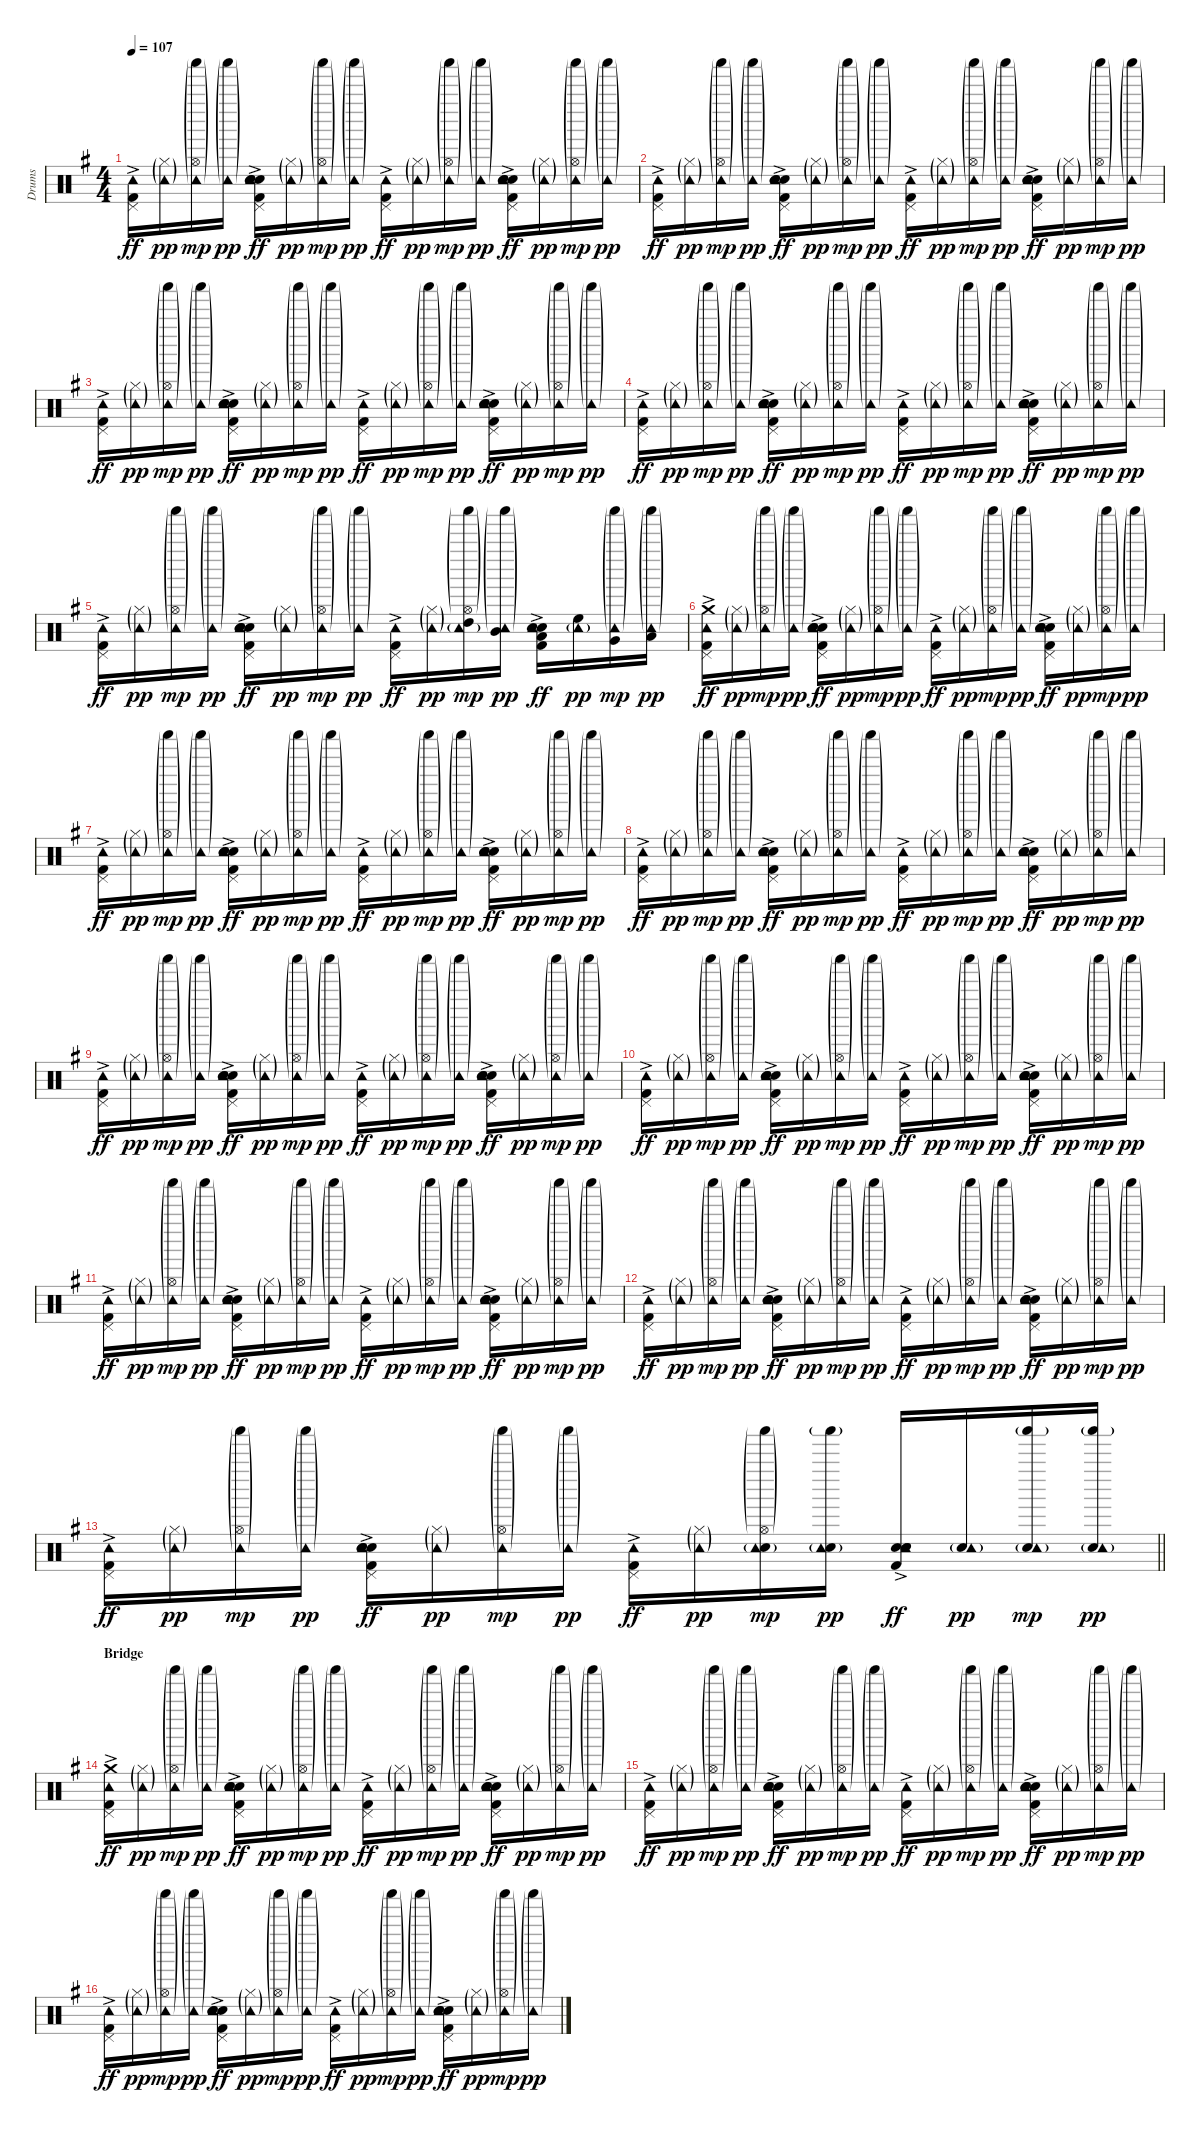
\track ("Drums" "Drums") {instrument percussion}
\staff {score}
\articulation defaults
\ts (4 4)
\tempo 107
\clef neutral
\ks g
("Kick (hit) 2"{ac} "Pedal Hi-Hat (hit)" "Tambourine (hit)").16{dy ff} ("Hi-Hat (closed)"{g} "Tambourine (hit)"{g}).16{dy pp} ("Shaker (hit)"{g} "Hi-Hat (open)"{g} "Tambourine (hit)"{g}).16{dy mp} ("Shaker (hit)"{g} "Tambourine (hit)"{g}).16{dy pp} ("Kick (hit) 2"{ac} "Electric Snare (hit)"{ac} "Snare (hit) 2" "Hand Clap (hit)" "Pedal Hi-Hat (hit)" "Tambourine (hit)").16{dy ff} ("Hi-Hat (closed)"{g} "Tambourine (hit)"{g}).16{dy pp} ("Shaker (hit)"{g} "Hi-Hat (open)"{g} "Tambourine (hit)"{g}).16{dy mp} ("Shaker (hit)"{g} "Tambourine (hit)"{g}).16{dy pp} ("Kick (hit) 2"{ac} "Pedal Hi-Hat (hit)" "Tambourine (hit)").16{dy ff} ("Hi-Hat (closed)"{g} "Tambourine (hit)"{g}).16{dy pp} ("Shaker (hit)"{g} "Hi-Hat (open)"{g} "Tambourine (hit)"{g}).16{dy mp} ("Shaker (hit)"{g} "Tambourine (hit)"{g}).16{dy pp} ("Kick (hit) 2"{ac} "Electric Snare (hit)"{ac} "Snare (hit) 2" "Hand Clap (hit)" "Pedal Hi-Hat (hit)" "Tambourine (hit)").16{dy ff} ("Hi-Hat (closed)"{g} "Tambourine (hit)"{g}).16{dy pp} ("Shaker (hit)"{g} "Hi-Hat (open)"{g} "Tambourine (hit)"{g}).16{dy mp} ("Shaker (hit)"{g} "Tambourine (hit)"{g}).16{dy pp} |
("Kick (hit) 2"{ac} "Pedal Hi-Hat (hit)" "Tambourine (hit)").16{dy ff} ("Hi-Hat (closed)"{g} "Tambourine (hit)"{g}).16{dy pp} ("Shaker (hit)"{g} "Hi-Hat (open)"{g} "Tambourine (hit)"{g}).16{dy mp} ("Shaker (hit)"{g} "Tambourine (hit)"{g}).16{dy pp} ("Kick (hit) 2"{ac} "Electric Snare (hit)"{ac} "Snare (hit) 2" "Hand Clap (hit)" "Pedal Hi-Hat (hit)" "Tambourine (hit)").16{dy ff} ("Hi-Hat (closed)"{g} "Tambourine (hit)"{g}).16{dy pp} ("Shaker (hit)"{g} "Hi-Hat (open)"{g} "Tambourine (hit)"{g}).16{dy mp} ("Shaker (hit)"{g} "Tambourine (hit)"{g}).16{dy pp} ("Kick (hit) 2"{ac} "Pedal Hi-Hat (hit)" "Tambourine (hit)").16{dy ff} ("Hi-Hat (closed)"{g} "Tambourine (hit)"{g}).16{dy pp} ("Shaker (hit)"{g} "Hi-Hat (open)"{g} "Tambourine (hit)"{g}).16{dy mp} ("Shaker (hit)"{g} "Tambourine (hit)"{g}).16{dy pp} ("Kick (hit) 2"{ac} "Electric Snare (hit)"{ac} "Snare (hit) 2" "Hand Clap (hit)" "Pedal Hi-Hat (hit)" "Tambourine (hit)").16{dy ff} ("Hi-Hat (closed)"{g} "Tambourine (hit)"{g}).16{dy pp} ("Shaker (hit)"{g} "Hi-Hat (open)"{g} "Tambourine (hit)"{g}).16{dy mp} ("Shaker (hit)"{g} "Tambourine (hit)"{g}).16{dy pp} |
("Kick (hit) 2"{ac} "Pedal Hi-Hat (hit)" "Tambourine (hit)").16{dy ff} ("Hi-Hat (closed)"{g} "Tambourine (hit)"{g}).16{dy pp} ("Shaker (hit)"{g} "Hi-Hat (open)"{g} "Tambourine (hit)"{g}).16{dy mp} ("Shaker (hit)"{g} "Tambourine (hit)"{g}).16{dy pp} ("Kick (hit) 2"{ac} "Electric Snare (hit)"{ac} "Snare (hit) 2" "Hand Clap (hit)" "Pedal Hi-Hat (hit)" "Tambourine (hit)").16{dy ff} ("Hi-Hat (closed)"{g} "Tambourine (hit)"{g}).16{dy pp} ("Shaker (hit)"{g} "Hi-Hat (open)"{g} "Tambourine (hit)"{g}).16{dy mp} ("Shaker (hit)"{g} "Tambourine (hit)"{g}).16{dy pp} ("Kick (hit) 2"{ac} "Pedal Hi-Hat (hit)" "Tambourine (hit)").16{dy ff} ("Hi-Hat (closed)"{g} "Tambourine (hit)"{g}).16{dy pp} ("Shaker (hit)"{g} "Hi-Hat (open)"{g} "Tambourine (hit)"{g}).16{dy mp} ("Shaker (hit)"{g} "Tambourine (hit)"{g}).16{dy pp} ("Kick (hit) 2"{ac} "Electric Snare (hit)"{ac} "Snare (hit) 2" "Hand Clap (hit)" "Pedal Hi-Hat (hit)" "Tambourine (hit)").16{dy ff} ("Hi-Hat (closed)"{g} "Tambourine (hit)"{g}).16{dy pp} ("Shaker (hit)"{g} "Hi-Hat (open)"{g} "Tambourine (hit)"{g}).16{dy mp} ("Shaker (hit)"{g} "Tambourine (hit)"{g}).16{dy pp} |
("Kick (hit) 2"{ac} "Pedal Hi-Hat (hit)" "Tambourine (hit)").16{dy ff} ("Hi-Hat (closed)"{g} "Tambourine (hit)"{g}).16{dy pp} ("Shaker (hit)"{g} "Hi-Hat (open)"{g} "Tambourine (hit)"{g}).16{dy mp} ("Shaker (hit)"{g} "Tambourine (hit)"{g}).16{dy pp} ("Kick (hit) 2"{ac} "Electric Snare (hit)"{ac} "Snare (hit) 2" "Hand Clap (hit)" "Pedal Hi-Hat (hit)" "Tambourine (hit)").16{dy ff} ("Hi-Hat (closed)"{g} "Tambourine (hit)"{g}).16{dy pp} ("Shaker (hit)"{g} "Hi-Hat (open)"{g} "Tambourine (hit)"{g}).16{dy mp} ("Shaker (hit)"{g} "Tambourine (hit)"{g}).16{dy pp} ("Kick (hit) 2"{ac} "Pedal Hi-Hat (hit)" "Tambourine (hit)").16{dy ff} ("Hi-Hat (closed)"{g} "Tambourine (hit)"{g}).16{dy pp} ("Shaker (hit)"{g} "Hi-Hat (open)"{g} "Tambourine (hit)"{g}).16{dy mp} ("Shaker (hit)"{g} "Tambourine (hit)"{g}).16{dy pp} ("Kick (hit) 2"{ac} "Electric Snare (hit)"{ac} "Snare (hit) 2" "Hand Clap (hit)" "Pedal Hi-Hat (hit)" "Tambourine (hit)").16{dy ff} ("Hi-Hat (closed)"{g} "Tambourine (hit)"{g}).16{dy pp} ("Shaker (hit)"{g} "Hi-Hat (open)"{g} "Tambourine (hit)"{g}).16{dy mp} ("Shaker (hit)"{g} "Tambourine (hit)"{g}).16{dy pp} |
("Kick (hit) 2"{ac} "Pedal Hi-Hat (hit)" "Tambourine (hit)").16{dy ff} ("Hi-Hat (closed)"{g} "Tambourine (hit)"{g}).16{dy pp} ("Shaker (hit)"{g} "Hi-Hat (open)"{g} "Tambourine (hit)"{g}).16{dy mp} ("Shaker (hit)"{g} "Tambourine (hit)"{g}).16{dy pp} ("Kick (hit) 2"{ac} "Electric Snare (hit)"{ac} "Snare (hit) 2" "Hand Clap (hit)" "Pedal Hi-Hat (hit)" "Tambourine (hit)").16{dy ff} ("Hi-Hat (closed)"{g} "Tambourine (hit)"{g}).16{dy pp} ("Shaker (hit)"{g} "Hi-Hat (open)"{g} "Tambourine (hit)"{g}).16{dy mp} ("Shaker (hit)"{g} "Tambourine (hit)"{g}).16{dy pp} ("Kick (hit) 2"{ac} "Pedal Hi-Hat (hit)" "Tambourine (hit)").16{dy ff} ("Hi-Hat (closed)"{g} "Tambourine (hit)"{g}).16{dy pp} ("High Tom (hit)" "Shaker (hit)"{g} "Hi-Hat (open)"{g} "Tambourine (hit)"{g}).16{dy mp} ("Mid Tom (hit)" "Shaker (hit)"{g} "Tambourine (hit)"{g}).16{dy pp} ("Kick (hit) 2"{ac} "Electric Snare (hit)"{ac} "Low Tom (hit)" "Hand Clap (hit)" "Tambourine (hit)").16{dy ff} ("High Floor Tom (hit)" "Tambourine (hit)"{g}).16{dy pp} ("Very Low Tom (hit)" "Shaker (hit)"{g} "Tambourine (hit)"{g}).16{dy mp} ("Low Floor Tom (hit)" "Shaker (hit)"{g} "Tambourine (hit)"{g}).16{dy pp} |
("Kick (hit) 2"{ac} "Crash medium (hit)" "Pedal Hi-Hat (hit)" "Tambourine (hit)").16{dy ff} ("Hi-Hat (closed)"{g} "Tambourine (hit)"{g}).16{dy pp} ("Shaker (hit)"{g} "Hi-Hat (open)"{g} "Tambourine (hit)"{g}).16{dy mp} ("Shaker (hit)"{g} "Tambourine (hit)"{g}).16{dy pp} ("Kick (hit) 2"{ac} "Electric Snare (hit)"{ac} "Snare (hit) 2" "Hand Clap (hit)" "Pedal Hi-Hat (hit)" "Tambourine (hit)").16{dy ff} ("Hi-Hat (closed)"{g} "Tambourine (hit)"{g}).16{dy pp} ("Shaker (hit)"{g} "Hi-Hat (open)"{g} "Tambourine (hit)"{g}).16{dy mp} ("Shaker (hit)"{g} "Tambourine (hit)"{g}).16{dy pp} ("Kick (hit) 2"{ac} "Pedal Hi-Hat (hit)" "Tambourine (hit)").16{dy ff} ("Hi-Hat (closed)"{g} "Tambourine (hit)"{g}).16{dy pp} ("Shaker (hit)"{g} "Hi-Hat (open)"{g} "Tambourine (hit)"{g}).16{dy mp} ("Shaker (hit)"{g} "Tambourine (hit)"{g}).16{dy pp} ("Kick (hit) 2"{ac} "Electric Snare (hit)"{ac} "Snare (hit) 2" "Hand Clap (hit)" "Pedal Hi-Hat (hit)" "Tambourine (hit)").16{dy ff} ("Hi-Hat (closed)"{g} "Tambourine (hit)"{g}).16{dy pp} ("Shaker (hit)"{g} "Hi-Hat (open)"{g} "Tambourine (hit)"{g}).16{dy mp} ("Shaker (hit)"{g} "Tambourine (hit)"{g}).16{dy pp} |
("Kick (hit) 2"{ac} "Pedal Hi-Hat (hit)" "Tambourine (hit)").16{dy ff} ("Hi-Hat (closed)"{g} "Tambourine (hit)"{g}).16{dy pp} ("Shaker (hit)"{g} "Hi-Hat (open)"{g} "Tambourine (hit)"{g}).16{dy mp} ("Shaker (hit)"{g} "Tambourine (hit)"{g}).16{dy pp} ("Kick (hit) 2"{ac} "Electric Snare (hit)"{ac} "Snare (hit) 2" "Hand Clap (hit)" "Pedal Hi-Hat (hit)" "Tambourine (hit)").16{dy ff} ("Hi-Hat (closed)"{g} "Tambourine (hit)"{g}).16{dy pp} ("Shaker (hit)"{g} "Hi-Hat (open)"{g} "Tambourine (hit)"{g}).16{dy mp} ("Shaker (hit)"{g} "Tambourine (hit)"{g}).16{dy pp} ("Kick (hit) 2"{ac} "Pedal Hi-Hat (hit)" "Tambourine (hit)").16{dy ff} ("Hi-Hat (closed)"{g} "Tambourine (hit)"{g}).16{dy pp} ("Shaker (hit)"{g} "Hi-Hat (open)"{g} "Tambourine (hit)"{g}).16{dy mp} ("Shaker (hit)"{g} "Tambourine (hit)"{g}).16{dy pp} ("Kick (hit) 2"{ac} "Electric Snare (hit)"{ac} "Snare (hit) 2" "Hand Clap (hit)" "Pedal Hi-Hat (hit)" "Tambourine (hit)").16{dy ff} ("Hi-Hat (closed)"{g} "Tambourine (hit)"{g}).16{dy pp} ("Shaker (hit)"{g} "Hi-Hat (open)"{g} "Tambourine (hit)"{g}).16{dy mp} ("Shaker (hit)"{g} "Tambourine (hit)"{g}).16{dy pp} |
("Kick (hit) 2"{ac} "Pedal Hi-Hat (hit)" "Tambourine (hit)").16{dy ff} ("Hi-Hat (closed)"{g} "Tambourine (hit)"{g}).16{dy pp} ("Shaker (hit)"{g} "Hi-Hat (open)"{g} "Tambourine (hit)"{g}).16{dy mp} ("Shaker (hit)"{g} "Tambourine (hit)"{g}).16{dy pp} ("Kick (hit) 2"{ac} "Electric Snare (hit)"{ac} "Snare (hit) 2" "Hand Clap (hit)" "Pedal Hi-Hat (hit)" "Tambourine (hit)").16{dy ff} ("Hi-Hat (closed)"{g} "Tambourine (hit)"{g}).16{dy pp} ("Shaker (hit)"{g} "Hi-Hat (open)"{g} "Tambourine (hit)"{g}).16{dy mp} ("Shaker (hit)"{g} "Tambourine (hit)"{g}).16{dy pp} ("Kick (hit) 2"{ac} "Pedal Hi-Hat (hit)" "Tambourine (hit)").16{dy ff} ("Hi-Hat (closed)"{g} "Tambourine (hit)"{g}).16{dy pp} ("Shaker (hit)"{g} "Hi-Hat (open)"{g} "Tambourine (hit)"{g}).16{dy mp} ("Shaker (hit)"{g} "Tambourine (hit)"{g}).16{dy pp} ("Kick (hit) 2"{ac} "Electric Snare (hit)"{ac} "Snare (hit) 2" "Hand Clap (hit)" "Pedal Hi-Hat (hit)" "Tambourine (hit)").16{dy ff} ("Hi-Hat (closed)"{g} "Tambourine (hit)"{g}).16{dy pp} ("Shaker (hit)"{g} "Hi-Hat (open)"{g} "Tambourine (hit)"{g}).16{dy mp} ("Shaker (hit)"{g} "Tambourine (hit)"{g}).16{dy pp} |
("Kick (hit) 2"{ac} "Pedal Hi-Hat (hit)" "Tambourine (hit)").16{dy ff} ("Hi-Hat (closed)"{g} "Tambourine (hit)"{g}).16{dy pp} ("Shaker (hit)"{g} "Hi-Hat (open)"{g} "Tambourine (hit)"{g}).16{dy mp} ("Shaker (hit)"{g} "Tambourine (hit)"{g}).16{dy pp} ("Kick (hit) 2"{ac} "Electric Snare (hit)"{ac} "Snare (hit) 2" "Hand Clap (hit)" "Pedal Hi-Hat (hit)" "Tambourine (hit)").16{dy ff} ("Hi-Hat (closed)"{g} "Tambourine (hit)"{g}).16{dy pp} ("Shaker (hit)"{g} "Hi-Hat (open)"{g} "Tambourine (hit)"{g}).16{dy mp} ("Shaker (hit)"{g} "Tambourine (hit)"{g}).16{dy pp} ("Kick (hit) 2"{ac} "Pedal Hi-Hat (hit)" "Tambourine (hit)").16{dy ff} ("Hi-Hat (closed)"{g} "Tambourine (hit)"{g}).16{dy pp} ("Shaker (hit)"{g} "Hi-Hat (open)"{g} "Tambourine (hit)"{g}).16{dy mp} ("Shaker (hit)"{g} "Tambourine (hit)"{g}).16{dy pp} ("Kick (hit) 2"{ac} "Electric Snare (hit)"{ac} "Snare (hit) 2" "Hand Clap (hit)" "Pedal Hi-Hat (hit)" "Tambourine (hit)").16{dy ff} ("Hi-Hat (closed)"{g} "Tambourine (hit)"{g}).16{dy pp} ("Shaker (hit)"{g} "Hi-Hat (open)"{g} "Tambourine (hit)"{g}).16{dy mp} ("Shaker (hit)"{g} "Tambourine (hit)"{g}).16{dy pp} |
("Kick (hit) 2"{ac} "Pedal Hi-Hat (hit)" "Tambourine (hit)").16{dy ff} ("Hi-Hat (closed)"{g} "Tambourine (hit)"{g}).16{dy pp} ("Shaker (hit)"{g} "Hi-Hat (open)"{g} "Tambourine (hit)"{g}).16{dy mp} ("Shaker (hit)"{g} "Tambourine (hit)"{g}).16{dy pp} ("Kick (hit) 2"{ac} "Electric Snare (hit)"{ac} "Snare (hit) 2" "Hand Clap (hit)" "Pedal Hi-Hat (hit)" "Tambourine (hit)").16{dy ff} ("Hi-Hat (closed)"{g} "Tambourine (hit)"{g}).16{dy pp} ("Shaker (hit)"{g} "Hi-Hat (open)"{g} "Tambourine (hit)"{g}).16{dy mp} ("Shaker (hit)"{g} "Tambourine (hit)"{g}).16{dy pp} ("Kick (hit) 2"{ac} "Pedal Hi-Hat (hit)" "Tambourine (hit)").16{dy ff} ("Hi-Hat (closed)"{g} "Tambourine (hit)"{g}).16{dy pp} ("Shaker (hit)"{g} "Hi-Hat (open)"{g} "Tambourine (hit)"{g}).16{dy mp} ("Shaker (hit)"{g} "Tambourine (hit)"{g}).16{dy pp} ("Kick (hit) 2"{ac} "Electric Snare (hit)"{ac} "Snare (hit) 2" "Hand Clap (hit)" "Pedal Hi-Hat (hit)" "Tambourine (hit)").16{dy ff} ("Hi-Hat (closed)"{g} "Tambourine (hit)"{g}).16{dy pp} ("Shaker (hit)"{g} "Hi-Hat (open)"{g} "Tambourine (hit)"{g}).16{dy mp} ("Shaker (hit)"{g} "Tambourine (hit)"{g}).16{dy pp} |
("Kick (hit) 2"{ac} "Pedal Hi-Hat (hit)" "Tambourine (hit)").16{dy ff} ("Hi-Hat (closed)"{g} "Tambourine (hit)"{g}).16{dy pp} ("Shaker (hit)"{g} "Hi-Hat (open)"{g} "Tambourine (hit)"{g}).16{dy mp} ("Shaker (hit)"{g} "Tambourine (hit)"{g}).16{dy pp} ("Kick (hit) 2"{ac} "Electric Snare (hit)"{ac} "Snare (hit) 2" "Hand Clap (hit)" "Pedal Hi-Hat (hit)" "Tambourine (hit)").16{dy ff} ("Hi-Hat (closed)"{g} "Tambourine (hit)"{g}).16{dy pp} ("Shaker (hit)"{g} "Hi-Hat (open)"{g} "Tambourine (hit)"{g}).16{dy mp} ("Shaker (hit)"{g} "Tambourine (hit)"{g}).16{dy pp} ("Kick (hit) 2"{ac} "Pedal Hi-Hat (hit)" "Tambourine (hit)").16{dy ff} ("Hi-Hat (closed)"{g} "Tambourine (hit)"{g}).16{dy pp} ("Shaker (hit)"{g} "Hi-Hat (open)"{g} "Tambourine (hit)"{g}).16{dy mp} ("Shaker (hit)"{g} "Tambourine (hit)"{g}).16{dy pp} ("Kick (hit) 2"{ac} "Electric Snare (hit)"{ac} "Snare (hit) 2" "Hand Clap (hit)" "Pedal Hi-Hat (hit)" "Tambourine (hit)").16{dy ff} ("Hi-Hat (closed)"{g} "Tambourine (hit)"{g}).16{dy pp} ("Shaker (hit)"{g} "Hi-Hat (open)"{g} "Tambourine (hit)"{g}).16{dy mp} ("Shaker (hit)"{g} "Tambourine (hit)"{g}).16{dy pp} |
("Kick (hit) 2"{ac} "Pedal Hi-Hat (hit)" "Tambourine (hit)").16{dy ff} ("Hi-Hat (closed)"{g} "Tambourine (hit)"{g}).16{dy pp} ("Shaker (hit)"{g} "Hi-Hat (open)"{g} "Tambourine (hit)"{g}).16{dy mp} ("Shaker (hit)"{g} "Tambourine (hit)"{g}).16{dy pp} ("Kick (hit) 2"{ac} "Electric Snare (hit)"{ac} "Snare (hit) 2" "Hand Clap (hit)" "Pedal Hi-Hat (hit)" "Tambourine (hit)").16{dy ff} ("Hi-Hat (closed)"{g} "Tambourine (hit)"{g}).16{dy pp} ("Shaker (hit)"{g} "Hi-Hat (open)"{g} "Tambourine (hit)"{g}).16{dy mp} ("Shaker (hit)"{g} "Tambourine (hit)"{g}).16{dy pp} ("Kick (hit) 2"{ac} "Pedal Hi-Hat (hit)" "Tambourine (hit)").16{dy ff} ("Hi-Hat (closed)"{g} "Tambourine (hit)"{g}).16{dy pp} ("Shaker (hit)"{g} "Hi-Hat (open)"{g} "Tambourine (hit)"{g}).16{dy mp} ("Shaker (hit)"{g} "Tambourine (hit)"{g}).16{dy pp} ("Kick (hit) 2"{ac} "Electric Snare (hit)"{ac} "Snare (hit) 2" "Hand Clap (hit)" "Pedal Hi-Hat (hit)" "Tambourine (hit)").16{dy ff} ("Hi-Hat (closed)"{g} "Tambourine (hit)"{g}).16{dy pp} ("Shaker (hit)"{g} "Hi-Hat (open)"{g} "Tambourine (hit)"{g}).16{dy mp} ("Shaker (hit)"{g} "Tambourine (hit)"{g}).16{dy pp} |
\barLineRight lightlight
("Kick (hit) 2"{ac} "Pedal Hi-Hat (hit)" "Tambourine (hit)").16{dy ff} ("Hi-Hat (closed)"{g} "Tambourine (hit)"{g}).16{dy pp} ("Shaker (hit)"{g} "Hi-Hat (open)"{g} "Tambourine (hit)"{g}).16{dy mp} ("Shaker (hit)"{g} "Tambourine (hit)"{g}).16{dy pp} ("Kick (hit) 2"{ac} "Electric Snare (hit)"{ac} "Snare (hit) 2" "Hand Clap (hit)" "Pedal Hi-Hat (hit)" "Tambourine (hit)").16{dy ff} ("Hi-Hat (closed)"{g} "Tambourine (hit)"{g}).16{dy pp} ("Shaker (hit)"{g} "Hi-Hat (open)"{g} "Tambourine (hit)"{g}).16{dy mp} ("Shaker (hit)"{g} "Tambourine (hit)"{g}).16{dy pp} ("Kick (hit) 2"{ac} "Pedal Hi-Hat (hit)" "Tambourine (hit)").16{dy ff} ("Hi-Hat (closed)"{g} "Tambourine (hit)"{g}).16{dy pp} ("Snare (hit) 2" "Shaker (hit)"{g} "Hi-Hat (open)"{g} "Tambourine (hit)"{g}).16{dy mp} ("Snare (hit) 2" "Shaker (hit)"{g} "Tambourine (hit)"{g}).16{dy pp} ("Kick (hit) 2"{ac} "Electric Snare (hit)"{ac} "Snare (hit) 2" "Hand Clap (hit)" "Tambourine (hit)").16{dy ff} ("Snare (hit) 2" "Tambourine (hit)"{g}).16{dy pp} ("Snare (hit) 2" "Shaker (hit)"{g} "Tambourine (hit)"{g}).16{dy mp} ("Snare (hit) 2" "Shaker (hit)"{g} "Tambourine (hit)"{g}).16{dy pp} |
\section ("" "Bridge")
("Kick (hit) 2"{ac} "Crash medium (hit)" "Pedal Hi-Hat (hit)" "Tambourine (hit)").16{dy ff} ("Hi-Hat (closed)"{g} "Tambourine (hit)"{g}).16{dy pp} ("Shaker (hit)"{g} "Hi-Hat (open)"{g} "Tambourine (hit)"{g}).16{dy mp} ("Shaker (hit)"{g} "Tambourine (hit)"{g}).16{dy pp} ("Kick (hit) 2"{ac} "Electric Snare (hit)"{ac} "Snare (hit) 2" "Hand Clap (hit)" "Pedal Hi-Hat (hit)" "Tambourine (hit)").16{dy ff} ("Hi-Hat (closed)"{g} "Tambourine (hit)"{g}).16{dy pp} ("Shaker (hit)"{g} "Hi-Hat (open)"{g} "Tambourine (hit)"{g}).16{dy mp} ("Shaker (hit)"{g} "Tambourine (hit)"{g}).16{dy pp} ("Kick (hit) 2"{ac} "Pedal Hi-Hat (hit)" "Tambourine (hit)").16{dy ff} ("Hi-Hat (closed)"{g} "Tambourine (hit)"{g}).16{dy pp} ("Shaker (hit)"{g} "Hi-Hat (open)"{g} "Tambourine (hit)"{g}).16{dy mp} ("Shaker (hit)"{g} "Tambourine (hit)"{g}).16{dy pp} ("Kick (hit) 2"{ac} "Electric Snare (hit)"{ac} "Snare (hit) 2" "Hand Clap (hit)" "Pedal Hi-Hat (hit)" "Tambourine (hit)").16{dy ff} ("Hi-Hat (closed)"{g} "Tambourine (hit)"{g}).16{dy pp} ("Shaker (hit)"{g} "Hi-Hat (open)"{g} "Tambourine (hit)"{g}).16{dy mp} ("Shaker (hit)"{g} "Tambourine (hit)"{g}).16{dy pp} |
("Kick (hit) 2"{ac} "Pedal Hi-Hat (hit)" "Tambourine (hit)").16{dy ff} ("Hi-Hat (closed)"{g} "Tambourine (hit)"{g}).16{dy pp} ("Shaker (hit)"{g} "Hi-Hat (open)"{g} "Tambourine (hit)"{g}).16{dy mp} ("Shaker (hit)"{g} "Tambourine (hit)"{g}).16{dy pp} ("Kick (hit) 2"{ac} "Electric Snare (hit)"{ac} "Snare (hit) 2" "Hand Clap (hit)" "Pedal Hi-Hat (hit)" "Tambourine (hit)").16{dy ff} ("Hi-Hat (closed)"{g} "Tambourine (hit)"{g}).16{dy pp} ("Shaker (hit)"{g} "Hi-Hat (open)"{g} "Tambourine (hit)"{g}).16{dy mp} ("Shaker (hit)"{g} "Tambourine (hit)"{g}).16{dy pp} ("Kick (hit) 2"{ac} "Pedal Hi-Hat (hit)" "Tambourine (hit)").16{dy ff} ("Hi-Hat (closed)"{g} "Tambourine (hit)"{g}).16{dy pp} ("Shaker (hit)"{g} "Hi-Hat (open)"{g} "Tambourine (hit)"{g}).16{dy mp} ("Shaker (hit)"{g} "Tambourine (hit)"{g}).16{dy pp} ("Kick (hit) 2"{ac} "Electric Snare (hit)"{ac} "Snare (hit) 2" "Hand Clap (hit)" "Pedal Hi-Hat (hit)" "Tambourine (hit)").16{dy ff} ("Hi-Hat (closed)"{g} "Tambourine (hit)"{g}).16{dy pp} ("Shaker (hit)"{g} "Hi-Hat (open)"{g} "Tambourine (hit)"{g}).16{dy mp} ("Shaker (hit)"{g} "Tambourine (hit)"{g}).16{dy pp} |
("Kick (hit) 2"{ac} "Pedal Hi-Hat (hit)" "Tambourine (hit)").16{dy ff} ("Hi-Hat (closed)"{g} "Tambourine (hit)"{g}).16{dy pp} ("Shaker (hit)"{g} "Hi-Hat (open)"{g} "Tambourine (hit)"{g}).16{dy mp} ("Shaker (hit)"{g} "Tambourine (hit)"{g}).16{dy pp} ("Kick (hit) 2"{ac} "Electric Snare (hit)"{ac} "Snare (hit) 2" "Hand Clap (hit)" "Pedal Hi-Hat (hit)" "Tambourine (hit)").16{dy ff} ("Hi-Hat (closed)"{g} "Tambourine (hit)"{g}).16{dy pp} ("Shaker (hit)"{g} "Hi-Hat (open)"{g} "Tambourine (hit)"{g}).16{dy mp} ("Shaker (hit)"{g} "Tambourine (hit)"{g}).16{dy pp} ("Kick (hit) 2"{ac} "Pedal Hi-Hat (hit)" "Tambourine (hit)").16{dy ff} ("Hi-Hat (closed)"{g} "Tambourine (hit)"{g}).16{dy pp} ("Shaker (hit)"{g} "Hi-Hat (open)"{g} "Tambourine (hit)"{g}).16{dy mp} ("Shaker (hit)"{g} "Tambourine (hit)"{g}).16{dy pp} ("Kick (hit) 2"{ac} "Electric Snare (hit)"{ac} "Snare (hit) 2" "Hand Clap (hit)" "Pedal Hi-Hat (hit)" "Tambourine (hit)").16{dy ff} ("Hi-Hat (closed)"{g} "Tambourine (hit)"{g}).16{dy pp} ("Shaker (hit)"{g} "Hi-Hat (open)"{g} "Tambourine (hit)"{g}).16{dy mp} ("Shaker (hit)"{g} "Tambourine (hit)"{g}).16{dy pp}
